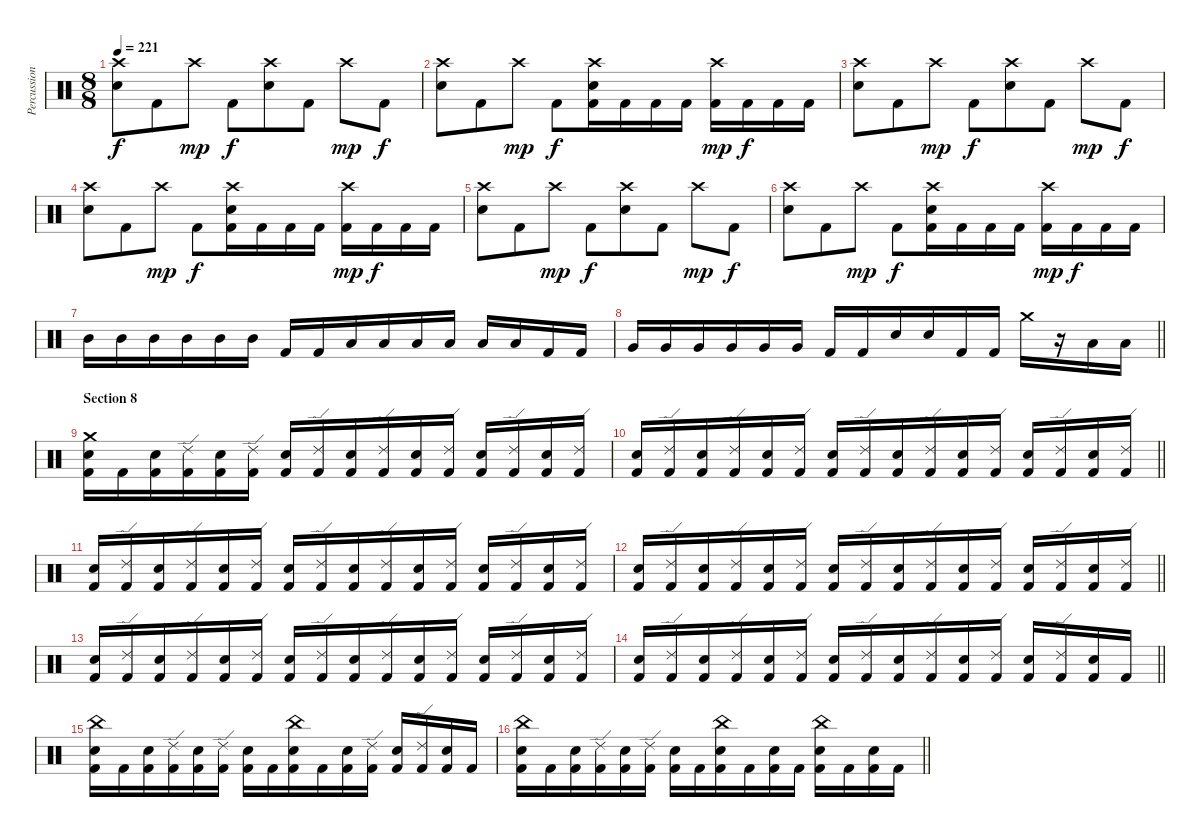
\track ("Percussion" "Percussion") {instrument percussion}
\staff {score}
\articulation defaults
\ts (8 8)
\tempo 221
\clef neutral
\ks c
("Crash high (hit)" "Snare (hit) 2").8{dy f} "Kick (hit) 2".8 "Crash high (hit)".8{dy mp} "Kick (hit) 2".8{dy f} ("Crash high (hit)" "Snare (hit) 2").8 "Kick (hit) 2".8 "Crash high (hit)".8{dy mp} "Kick (hit) 2".8{dy f} |
("Crash high (hit)" "Snare (hit) 2").8 "Kick (hit) 2".8 "Crash high (hit)".8{dy mp} "Kick (hit) 2".8{dy f} ("Crash high (hit)" "Snare (hit) 2" "Kick (hit) 2").16 "Kick (hit) 2".16 "Kick (hit) 2".16 "Kick (hit) 2".16 ("Crash high (hit)" "Kick (hit) 2").16{dy mp} "Kick (hit) 2".16{dy f} "Kick (hit) 2".16 "Kick (hit) 2".16 |
("Crash high (hit)" "Snare (hit) 2").8 "Kick (hit) 2".8 "Crash high (hit)".8{dy mp} "Kick (hit) 2".8{dy f} ("Crash high (hit)" "Snare (hit) 2").8 "Kick (hit) 2".8 "Crash high (hit)".8{dy mp} "Kick (hit) 2".8{dy f} |
("Crash high (hit)" "Snare (hit) 2").8 "Kick (hit) 2".8 "Crash high (hit)".8{dy mp} "Kick (hit) 2".8{dy f} ("Crash high (hit)" "Snare (hit) 2" "Kick (hit) 2").16 "Kick (hit) 2".16 "Kick (hit) 2".16 "Kick (hit) 2".16 ("Crash high (hit)" "Kick (hit) 2").16{dy mp} "Kick (hit) 2".16{dy f} "Kick (hit) 2".16 "Kick (hit) 2".16 |
("Crash high (hit)" "Snare (hit) 2").8 "Kick (hit) 2".8 "Crash high (hit)".8{dy mp} "Kick (hit) 2".8{dy f} ("Crash high (hit)" "Snare (hit) 2").8 "Kick (hit) 2".8 "Crash high (hit)".8{dy mp} "Kick (hit) 2".8{dy f} |
("Crash high (hit)" "Snare (hit) 2").8 "Kick (hit) 2".8 "Crash high (hit)".8{dy mp} "Kick (hit) 2".8{dy f} ("Crash high (hit)" "Snare (hit) 2" "Kick (hit) 2").16 "Kick (hit) 2".16 "Kick (hit) 2".16 "Kick (hit) 2".16 ("Crash high (hit)" "Kick (hit) 2").16{dy mp} "Kick (hit) 2".16{dy f} "Kick (hit) 2".16 "Kick (hit) 2".16 |
"Mid Tom (hit)".16 "Mid Tom (hit)".16 "Mid Tom (hit)".16 "Mid Tom (hit)".16 "Mid Tom (hit)".16 "Mid Tom (hit)".16 "Kick (hit) 2".16 "Kick (hit) 2".16 "Low Tom (hit)".16 "Low Tom (hit)".16 "Low Tom (hit)".16 "Low Tom (hit)".16 "Low Tom (hit)".16 "Low Tom (hit)".16 "Kick (hit) 2".16 "Kick (hit) 2".16 |
\barLineRight lightlight "Very Low Tom (hit)".16 "Very Low Tom (hit)".16 "Very Low Tom (hit)".16 "Very Low Tom (hit)".16 "Very Low Tom (hit)".16 "Very Low Tom (hit)".16 "Kick (hit) 2".16 "Kick (hit) 2".16 "Snare (hit) 2".16 "Snare (hit) 2".16 "Kick (hit) 2".16 "Kick (hit) 2".16 "Crash medium (hit)".16
r.16 "Low Floor Tom (hit)".16 "Low Floor Tom (hit)".16 |
\section ("" "Section 8")
("Crash medium (hit)" "Snare (hit) 2" "Kick (hit) 2").16 "Kick (hit) 2".16 ("Snare (hit) 2" "Kick (hit) 2").16 ("Ride (edge) 2" "Kick (hit) 2").16 ("Snare (hit) 2" "Kick (hit) 2").16 ("Ride (edge) 2" "Kick (hit) 2").16 ("Snare (hit) 2" "Kick (hit) 2").16 ("Ride (edge) 2" "Kick (hit) 2").16 ("Snare (hit) 2" "Kick (hit) 2").16 ("Ride (edge) 2" "Kick (hit) 2").16 ("Snare (hit) 2" "Kick (hit) 2").16 ("Ride (edge) 2" "Kick (hit) 2").16 ("Snare (hit) 2" "Kick (hit) 2").16 ("Ride (edge) 2" "Kick (hit) 2").16 ("Snare (hit) 2" "Kick (hit) 2").16 ("Ride (edge) 2" "Kick (hit) 2").16 |
\barLineRight lightlight
("Snare (hit) 2" "Kick (hit) 2").16 ("Ride (edge) 2" "Kick (hit) 2").16 ("Snare (hit) 2" "Kick (hit) 2").16 ("Ride (edge) 2" "Kick (hit) 2").16 ("Snare (hit) 2" "Kick (hit) 2").16 ("Ride (edge) 2" "Kick (hit) 2").16 ("Snare (hit) 2" "Kick (hit) 2").16 ("Ride (edge) 2" "Kick (hit) 2").16 ("Snare (hit) 2" "Kick (hit) 2").16 ("Ride (edge) 2" "Kick (hit) 2").16 ("Snare (hit) 2" "Kick (hit) 2").16 ("Ride (edge) 2" "Kick (hit) 2").16 ("Snare (hit) 2" "Kick (hit) 2").16 ("Ride (edge) 2" "Kick (hit) 2").16 ("Snare (hit) 2" "Kick (hit) 2").16 ("Ride (edge) 2" "Kick (hit) 2").16 |
("Snare (hit) 2" "Kick (hit) 2").16 ("Ride (edge) 2" "Kick (hit) 2").16 ("Snare (hit) 2" "Kick (hit) 2").16 ("Ride (edge) 2" "Kick (hit) 2").16 ("Snare (hit) 2" "Kick (hit) 2").16 ("Ride (edge) 2" "Kick (hit) 2").16 ("Snare (hit) 2" "Kick (hit) 2").16 ("Ride (edge) 2" "Kick (hit) 2").16 ("Snare (hit) 2" "Kick (hit) 2").16 ("Ride (edge) 2" "Kick (hit) 2").16 ("Snare (hit) 2" "Kick (hit) 2").16 ("Ride (edge) 2" "Kick (hit) 2").16 ("Snare (hit) 2" "Kick (hit) 2").16 ("Ride (edge) 2" "Kick (hit) 2").16 ("Snare (hit) 2" "Kick (hit) 2").16 ("Ride (edge) 2" "Kick (hit) 2").16 |
\barLineRight lightlight
("Snare (hit) 2" "Kick (hit) 2").16 ("Ride (edge) 2" "Kick (hit) 2").16 ("Snare (hit) 2" "Kick (hit) 2").16 ("Ride (edge) 2" "Kick (hit) 2").16 ("Snare (hit) 2" "Kick (hit) 2").16 ("Ride (edge) 2" "Kick (hit) 2").16 ("Snare (hit) 2" "Kick (hit) 2").16 ("Ride (edge) 2" "Kick (hit) 2").16 ("Snare (hit) 2" "Kick (hit) 2").16 ("Ride (edge) 2" "Kick (hit) 2").16 ("Snare (hit) 2" "Kick (hit) 2").16 ("Ride (edge) 2" "Kick (hit) 2").16 ("Snare (hit) 2" "Kick (hit) 2").16 ("Ride (edge) 2" "Kick (hit) 2").16 ("Snare (hit) 2" "Kick (hit) 2").16 ("Ride (edge) 2" "Kick (hit) 2").16 |
("Snare (hit) 2" "Kick (hit) 2").16 ("Ride (edge) 2" "Kick (hit) 2").16 ("Snare (hit) 2" "Kick (hit) 2").16 ("Ride (edge) 2" "Kick (hit) 2").16 ("Snare (hit) 2" "Kick (hit) 2").16 ("Ride (edge) 2" "Kick (hit) 2").16 ("Snare (hit) 2" "Kick (hit) 2").16 ("Ride (edge) 2" "Kick (hit) 2").16 ("Snare (hit) 2" "Kick (hit) 2").16 ("Ride (edge) 2" "Kick (hit) 2").16 ("Snare (hit) 2" "Kick (hit) 2").16 ("Ride (edge) 2" "Kick (hit) 2").16 ("Snare (hit) 2" "Kick (hit) 2").16 ("Ride (edge) 2" "Kick (hit) 2").16 ("Snare (hit) 2" "Kick (hit) 2").16 ("Ride (edge) 2" "Kick (hit) 2").16 |
\barLineRight lightlight
("Snare (hit) 2" "Kick (hit) 2").16 ("Ride (edge) 2" "Kick (hit) 2").16 ("Snare (hit) 2" "Kick (hit) 2").16 ("Ride (edge) 2" "Kick (hit) 2").16 ("Snare (hit) 2" "Kick (hit) 2").16 ("Ride (edge) 2" "Kick (hit) 2").16 ("Snare (hit) 2" "Kick (hit) 2").16 ("Ride (edge) 2" "Kick (hit) 2").16 ("Snare (hit) 2" "Kick (hit) 2").16 ("Ride (edge) 2" "Kick (hit) 2").16 ("Snare (hit) 2" "Kick (hit) 2").16 ("Ride (edge) 2" "Kick (hit) 2").16 ("Snare (hit) 2" "Kick (hit) 2").16 ("Ride (edge) 2" "Kick (hit) 2").16 ("Snare (hit) 2" "Kick (hit) 2").16 "Kick (hit) 2".16 |
("China (hit)" "Snare (hit) 2" "Kick (hit) 2").16 "Kick (hit) 2".16 ("Snare (hit) 2" "Kick (hit) 2").16 ("Ride (edge) 2" "Kick (hit) 2").16 ("Snare (hit) 2" "Kick (hit) 2").16 ("Ride (edge) 2" "Kick (hit) 2").16 ("Snare (hit) 2" "Kick (hit) 2").16 "Kick (hit) 2".16 ("China (hit)" "Snare (hit) 2" "Kick (hit) 2").16 "Kick (hit) 2".16 ("Snare (hit) 2" "Kick (hit) 2").16 ("Ride (edge) 2" "Kick (hit) 2").16 ("Snare (hit) 2" "Kick (hit) 2").16 ("Ride (edge) 2" "Kick (hit) 2").16 ("Snare (hit) 2" "Kick (hit) 2").16 "Kick (hit) 2".16 |
\barLineRight lightlight
("China (hit)" "Snare (hit) 2" "Kick (hit) 2").16 "Kick (hit) 2".16 ("Snare (hit) 2" "Kick (hit) 2").16 ("Ride (edge) 2" "Kick (hit) 2").16 ("Snare (hit) 2" "Kick (hit) 2").16 ("Ride (edge) 2" "Kick (hit) 2").16 ("Snare (hit) 2" "Kick (hit) 2").16 "Kick (hit) 2".16 ("China (hit)" "Snare (hit) 2" "Kick (hit) 2").16 "Kick (hit) 2".16 ("Snare (hit) 2" "Kick (hit) 2").16 "Kick (hit) 2".16 ("China (hit)" "Snare (hit) 2" "Kick (hit) 2").16 "Kick (hit) 2".16 ("Snare (hit) 2" "Kick (hit) 2").16 "Kick (hit) 2".16
